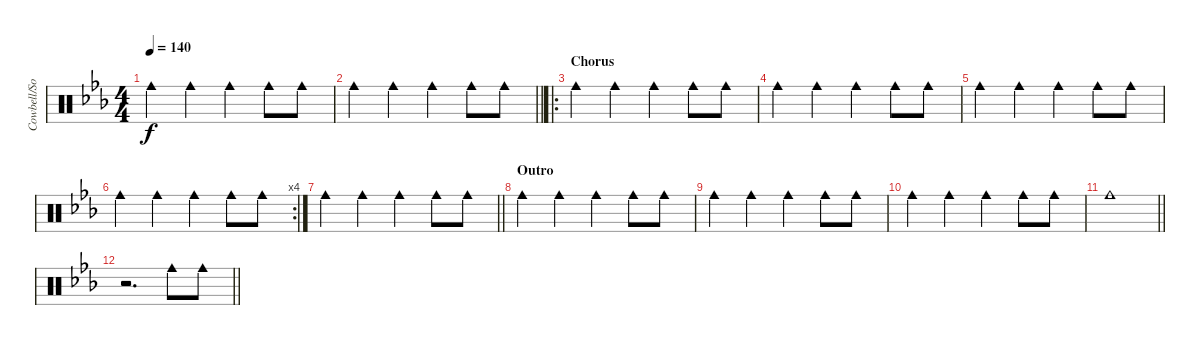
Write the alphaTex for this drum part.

\track ("Cowbell/Sound FX (Leah)" "Cowbell/So") {instrument percussion}
\staff {score}
\articulation defaults
\ts (4 4)
\tempo 140
\clef neutral
\ks cminor "Cowbell medium (hit)".4{dy f} "Cowbell medium (hit)".4 "Cowbell medium (hit)".4 "Cowbell medium (hit)".8 "Cowbell medium (hit)".8
|
\barLineRight lightlight "Cowbell medium (hit)".4 "Cowbell medium (hit)".4 "Cowbell medium (hit)".4 "Cowbell medium (hit)".8 "Cowbell medium (hit)".8
|
\ro
\section ("" "Chorus")
"Cowbell medium (hit)".4 "Cowbell medium (hit)".4 "Cowbell medium (hit)".4 "Cowbell medium (hit)".8 "Cowbell medium (hit)".8 |
"Cowbell medium (hit)".4 "Cowbell medium (hit)".4 "Cowbell medium (hit)".4 "Cowbell medium (hit)".8 "Cowbell medium (hit)".8 |
"Cowbell medium (hit)".4 "Cowbell medium (hit)".4 "Cowbell medium (hit)".4 "Cowbell medium (hit)".8 "Cowbell medium (hit)".8 |
\rc 4 "Cowbell medium (hit)".4 "Cowbell medium (hit)".4 "Cowbell medium (hit)".4 "Cowbell medium (hit)".8 "Cowbell medium (hit)".8
|
\barLineRight lightlight "Cowbell medium (hit)".4 "Cowbell medium (hit)".4 "Cowbell medium (hit)".4 "Cowbell medium (hit)".8 "Cowbell medium (hit)".8
|
\section ("" "Outro")
"Cowbell medium (hit)".4 "Cowbell medium (hit)".4 "Cowbell medium (hit)".4 "Cowbell medium (hit)".8 "Cowbell medium (hit)".8 |
"Cowbell medium (hit)".4 "Cowbell medium (hit)".4 "Cowbell medium (hit)".4 "Cowbell medium (hit)".8 "Cowbell medium (hit)".8 |
"Cowbell medium (hit)".4 "Cowbell medium (hit)".4 "Cowbell medium (hit)".4 "Cowbell medium (hit)".8 "Cowbell medium (hit)".8 |
\barLineRight lightlight "Cowbell medium (hit)".1
|
\barLineRight lightlight
r.2{d} "Cowbell medium (hit)".8 "Cowbell medium (hit)".8
